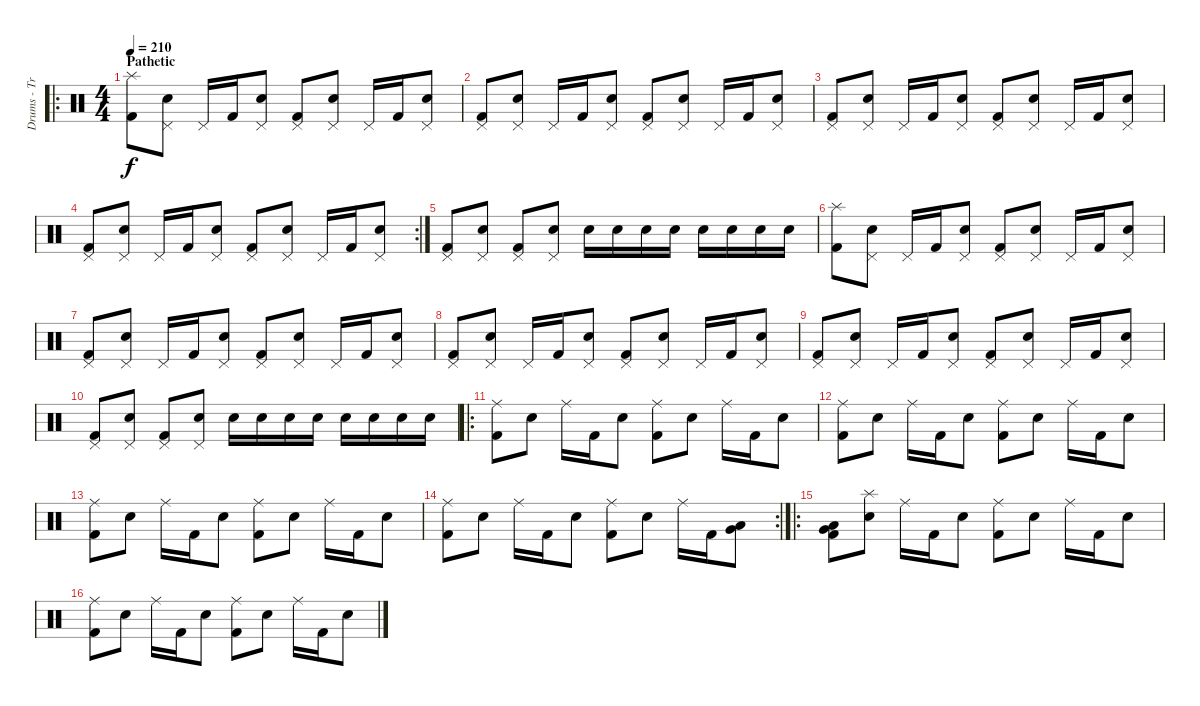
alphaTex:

\track ("Drums - Travis Barker" "Drums - Tr") {instrument percussion}
\staff {score}
\articulation defaults
\ro
\ts (4 4)
\section ("" "Pathetic")
\tempo 210
\clef neutral
\ks c
("Splash (hit)" "Kick (hit) 2").8{dy f} ("Pedal Hi-Hat (hit)" "Electric Snare (hit)").8 "Pedal Hi-Hat (hit)".16 "Kick (hit) 2".16 ("Pedal Hi-Hat (hit)" "Electric Snare (hit)").8 ("Pedal Hi-Hat (hit)" "Kick (hit) 2").8 ("Pedal Hi-Hat (hit)" "Electric Snare (hit)").8 "Pedal Hi-Hat (hit)".16 "Kick (hit) 2".16 ("Pedal Hi-Hat (hit)" "Electric Snare (hit)").8 |
("Pedal Hi-Hat (hit)" "Kick (hit) 2").8 ("Pedal Hi-Hat (hit)" "Electric Snare (hit)").8 "Pedal Hi-Hat (hit)".16 "Kick (hit) 2".16 ("Pedal Hi-Hat (hit)" "Electric Snare (hit)").8 ("Pedal Hi-Hat (hit)" "Kick (hit) 2").8 ("Pedal Hi-Hat (hit)" "Electric Snare (hit)").8 "Pedal Hi-Hat (hit)".16 "Kick (hit) 2".16 ("Pedal Hi-Hat (hit)" "Electric Snare (hit)").8 |
("Pedal Hi-Hat (hit)" "Kick (hit) 2").8 ("Pedal Hi-Hat (hit)" "Electric Snare (hit)").8 "Pedal Hi-Hat (hit)".16 "Kick (hit) 2".16 ("Pedal Hi-Hat (hit)" "Electric Snare (hit)").8 ("Pedal Hi-Hat (hit)" "Kick (hit) 2").8 ("Pedal Hi-Hat (hit)" "Electric Snare (hit)").8 "Pedal Hi-Hat (hit)".16 "Kick (hit) 2".16 ("Pedal Hi-Hat (hit)" "Electric Snare (hit)").8 |
\rc 2
("Pedal Hi-Hat (hit)" "Kick (hit) 2").8 ("Pedal Hi-Hat (hit)" "Electric Snare (hit)").8 "Pedal Hi-Hat (hit)".16 "Kick (hit) 2".16 ("Pedal Hi-Hat (hit)" "Electric Snare (hit)").8 ("Pedal Hi-Hat (hit)" "Kick (hit) 2").8 ("Pedal Hi-Hat (hit)" "Electric Snare (hit)").8 "Pedal Hi-Hat (hit)".16 "Kick (hit) 2".16 ("Pedal Hi-Hat (hit)" "Electric Snare (hit)").8 |
("Pedal Hi-Hat (hit)" "Kick (hit) 2").8 ("Pedal Hi-Hat (hit)" "Electric Snare (hit)").8 ("Pedal Hi-Hat (hit)" "Kick (hit) 2").8 ("Pedal Hi-Hat (hit)" "Electric Snare (hit)").8 "Electric Snare (hit)".16 "Electric Snare (hit)".16 "Electric Snare (hit)".16 "Electric Snare (hit)".16 "Electric Snare (hit)".16 "Electric Snare (hit)".16 "Electric Snare (hit)".16 "Electric Snare (hit)".16 |
("Splash (hit)" "Kick (hit) 2").8 ("Pedal Hi-Hat (hit)" "Electric Snare (hit)").8 "Pedal Hi-Hat (hit)".16 "Kick (hit) 2".16 ("Pedal Hi-Hat (hit)" "Electric Snare (hit)").8 ("Pedal Hi-Hat (hit)" "Kick (hit) 2").8 ("Pedal Hi-Hat (hit)" "Electric Snare (hit)").8 "Pedal Hi-Hat (hit)".16 "Kick (hit) 2".16 ("Pedal Hi-Hat (hit)" "Electric Snare (hit)").8 |
("Pedal Hi-Hat (hit)" "Kick (hit) 2").8 ("Pedal Hi-Hat (hit)" "Electric Snare (hit)").8 "Pedal Hi-Hat (hit)".16 "Kick (hit) 2".16 ("Pedal Hi-Hat (hit)" "Electric Snare (hit)").8 ("Pedal Hi-Hat (hit)" "Kick (hit) 2").8 ("Pedal Hi-Hat (hit)" "Electric Snare (hit)").8 "Pedal Hi-Hat (hit)".16 "Kick (hit) 2".16 ("Pedal Hi-Hat (hit)" "Electric Snare (hit)").8 |
("Pedal Hi-Hat (hit)" "Kick (hit) 2").8 ("Pedal Hi-Hat (hit)" "Electric Snare (hit)").8 "Pedal Hi-Hat (hit)".16 "Kick (hit) 2".16 ("Pedal Hi-Hat (hit)" "Electric Snare (hit)").8 ("Pedal Hi-Hat (hit)" "Kick (hit) 2").8 ("Pedal Hi-Hat (hit)" "Electric Snare (hit)").8 "Pedal Hi-Hat (hit)".16 "Kick (hit) 2".16 ("Pedal Hi-Hat (hit)" "Electric Snare (hit)").8 |
("Pedal Hi-Hat (hit)" "Kick (hit) 2").8 ("Pedal Hi-Hat (hit)" "Electric Snare (hit)").8 "Pedal Hi-Hat (hit)".16 "Kick (hit) 2".16 ("Pedal Hi-Hat (hit)" "Electric Snare (hit)").8 ("Pedal Hi-Hat (hit)" "Kick (hit) 2").8 ("Pedal Hi-Hat (hit)" "Electric Snare (hit)").8 "Pedal Hi-Hat (hit)".16 "Kick (hit) 2".16 ("Pedal Hi-Hat (hit)" "Electric Snare (hit)").8 |
("Pedal Hi-Hat (hit)" "Kick (hit) 2").8 ("Pedal Hi-Hat (hit)" "Electric Snare (hit)").8 ("Pedal Hi-Hat (hit)" "Kick (hit) 2").8 ("Pedal Hi-Hat (hit)" "Electric Snare (hit)").8 "Electric Snare (hit)".16 "Electric Snare (hit)".16 "Electric Snare (hit)".16 "Electric Snare (hit)".16 "Electric Snare (hit)".16 "Electric Snare (hit)".16 "Electric Snare (hit)".16 "Electric Snare (hit)".16 |
\ro
("Ride (middle)" "Kick (hit) 2").8 "Electric Snare (hit)".8 "Ride (middle)".16 "Kick (hit) 2".16 "Electric Snare (hit)".8 ("Ride (middle)" "Kick (hit) 2").8 "Electric Snare (hit)".8 "Ride (middle)".16 "Kick (hit) 2".16 "Electric Snare (hit)".8 |
("Ride (middle)" "Kick (hit) 2").8 "Electric Snare (hit)".8 "Ride (middle)".16 "Kick (hit) 2".16 "Electric Snare (hit)".8 ("Ride (middle)" "Kick (hit) 2").8 "Electric Snare (hit)".8 "Ride (middle)".16 "Kick (hit) 2".16 "Electric Snare (hit)".8 |
("Ride (middle)" "Kick (hit) 2").8 "Electric Snare (hit)".8 "Ride (middle)".16 "Kick (hit) 2".16 "Electric Snare (hit)".8 ("Ride (middle)" "Kick (hit) 2").8 "Electric Snare (hit)".8 "Ride (middle)".16 "Kick (hit) 2".16 "Electric Snare (hit)".8 |
\rc 2
("Ride (middle)" "Kick (hit) 2").8 "Electric Snare (hit)".8 "Ride (middle)".16 "Kick (hit) 2".16 "Electric Snare (hit)".8 ("Ride (middle)" "Kick (hit) 2").8 "Electric Snare (hit)".8 "Ride (middle)".16 "Kick (hit) 2".16 ("Low Tom (hit)" "Very Low Tom (hit)").8 |
\ro
("Low Tom (hit)" "Very Low Tom (hit)" "Kick (hit) 2").8 ("Splash (hit)" "Electric Snare (hit)").8 "Ride (middle)".16 "Kick (hit) 2".16 "Electric Snare (hit)".8 ("Ride (middle)" "Kick (hit) 2").8 "Electric Snare (hit)".8 "Ride (middle)".16 "Kick (hit) 2".16 "Electric Snare (hit)".8 |
("Ride (middle)" "Kick (hit) 2").8 "Electric Snare (hit)".8 "Ride (middle)".16 "Kick (hit) 2".16 "Electric Snare (hit)".8 ("Ride (middle)" "Kick (hit) 2").8 "Electric Snare (hit)".8 "Ride (middle)".16 "Kick (hit) 2".16 "Electric Snare (hit)".8
